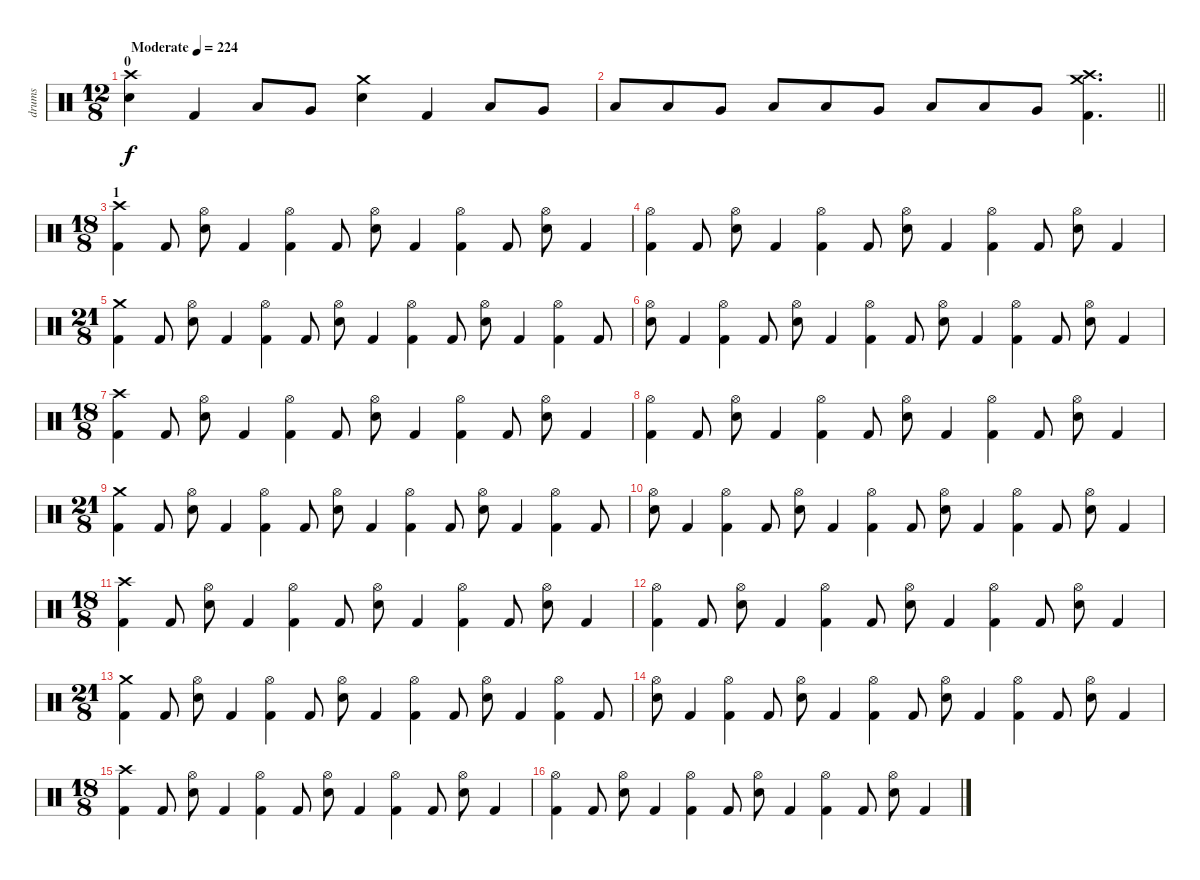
\track ("drums" "drums") {instrument percussion}
\staff {score}
\articulation defaults
\ts (12 8)
\section ("" "0")
\tempo (224 "Moderate")
\clef neutral
\ks c
("Crash high (hit)" "Electric Snare (hit)").4{dy f} "Kick (hit) 2".4 "Low Tom (hit)".8 "Very Low Tom (hit)".8 ("Crash medium (hit)" "Electric Snare (hit)").4 "Kick (hit) 2".4 "Low Tom (hit)".8 "Very Low Tom (hit)".8 |
\barLineRight lightlight "Low Floor Tom (hit)".8 "Low Tom (hit)".8 "Very Low Tom (hit)".8 "Low Floor Tom (hit)".8 "Low Tom (hit)".8 "Very Low Tom (hit)".8 "Low Floor Tom (hit)".8 "Low Tom (hit)".8 "Very Low Tom (hit)".8
("Crash medium (hit)" "Crash high (hit)" "Kick (hit) 2").4{d} |
\ts (18 8)
\section ("" "1")
("Crash high (hit)" "Kick (hit) 2").4 "Kick (hit) 2".8 ("Hi-Hat (open)" "Electric Snare (hit)").8 "Kick (hit) 2".4 ("Hi-Hat (open)" "Kick (hit) 2").4 "Kick (hit) 2".8 ("Hi-Hat (open)" "Electric Snare (hit)").8 "Kick (hit) 2".4 ("Hi-Hat (open)" "Kick (hit) 2").4 "Kick (hit) 2".8 ("Hi-Hat (open)" "Electric Snare (hit)").8 "Kick (hit) 2".4 |
("Hi-Hat (open)" "Kick (hit) 2").4 "Kick (hit) 2".8 ("Electric Snare (hit)" "Hi-Hat (open)").8 "Kick (hit) 2".4 ("Hi-Hat (open)" "Kick (hit) 2").4 "Kick (hit) 2".8 ("Electric Snare (hit)" "Hi-Hat (open)").8 "Kick (hit) 2".4 ("Hi-Hat (open)" "Kick (hit) 2").4 "Kick (hit) 2".8 ("Electric Snare (hit)" "Hi-Hat (open)").8 "Kick (hit) 2".4 |
\ts (21 8)
("Kick (hit) 2" "Crash medium (hit)").4 "Kick (hit) 2".8 ("Electric Snare (hit)" "Hi-Hat (open)").8 "Kick (hit) 2".4 ("Kick (hit) 2" "Hi-Hat (open)").4 "Kick (hit) 2".8 ("Electric Snare (hit)" "Hi-Hat (open)").8 "Kick (hit) 2".4 ("Kick (hit) 2" "Hi-Hat (open)").4 "Kick (hit) 2".8 ("Electric Snare (hit)" "Hi-Hat (open)").8 "Kick (hit) 2".4 ("Kick (hit) 2" "Hi-Hat (open)").4 "Kick (hit) 2".8 |
("Electric Snare (hit)" "Hi-Hat (open)").8 "Kick (hit) 2".4 ("Kick (hit) 2" "Hi-Hat (open)").4 "Kick (hit) 2".8 ("Electric Snare (hit)" "Hi-Hat (open)").8 "Kick (hit) 2".4 ("Kick (hit) 2" "Hi-Hat (open)").4 "Kick (hit) 2".8 ("Electric Snare (hit)" "Hi-Hat (open)").8 "Kick (hit) 2".4 ("Kick (hit) 2" "Hi-Hat (open)").4 "Kick (hit) 2".8 ("Electric Snare (hit)" "Hi-Hat (open)").8 "Kick (hit) 2".4 |
\ts (18 8)
("Crash high (hit)" "Kick (hit) 2").4 "Kick (hit) 2".8 ("Hi-Hat (open)" "Electric Snare (hit)").8 "Kick (hit) 2".4 ("Hi-Hat (open)" "Kick (hit) 2").4 "Kick (hit) 2".8 ("Hi-Hat (open)" "Electric Snare (hit)").8 "Kick (hit) 2".4 ("Hi-Hat (open)" "Kick (hit) 2").4 "Kick (hit) 2".8 ("Hi-Hat (open)" "Electric Snare (hit)").8 "Kick (hit) 2".4 |
("Hi-Hat (open)" "Kick (hit) 2").4 "Kick (hit) 2".8 ("Electric Snare (hit)" "Hi-Hat (open)").8 "Kick (hit) 2".4 ("Hi-Hat (open)" "Kick (hit) 2").4 "Kick (hit) 2".8 ("Electric Snare (hit)" "Hi-Hat (open)").8 "Kick (hit) 2".4 ("Hi-Hat (open)" "Kick (hit) 2").4 "Kick (hit) 2".8 ("Electric Snare (hit)" "Hi-Hat (open)").8 "Kick (hit) 2".4 |
\ts (21 8)
("Kick (hit) 2" "Crash medium (hit)").4 "Kick (hit) 2".8 ("Electric Snare (hit)" "Hi-Hat (open)").8 "Kick (hit) 2".4 ("Kick (hit) 2" "Hi-Hat (open)").4 "Kick (hit) 2".8 ("Electric Snare (hit)" "Hi-Hat (open)").8 "Kick (hit) 2".4 ("Kick (hit) 2" "Hi-Hat (open)").4 "Kick (hit) 2".8 ("Electric Snare (hit)" "Hi-Hat (open)").8 "Kick (hit) 2".4 ("Kick (hit) 2" "Hi-Hat (open)").4 "Kick (hit) 2".8 |
("Electric Snare (hit)" "Hi-Hat (open)").8 "Kick (hit) 2".4 ("Kick (hit) 2" "Hi-Hat (open)").4 "Kick (hit) 2".8 ("Electric Snare (hit)" "Hi-Hat (open)").8 "Kick (hit) 2".4 ("Kick (hit) 2" "Hi-Hat (open)").4 "Kick (hit) 2".8 ("Electric Snare (hit)" "Hi-Hat (open)").8 "Kick (hit) 2".4 ("Kick (hit) 2" "Hi-Hat (open)").4 "Kick (hit) 2".8 ("Electric Snare (hit)" "Hi-Hat (open)").8 "Kick (hit) 2".4 |
\ts (18 8)
("Crash high (hit)" "Kick (hit) 2").4 "Kick (hit) 2".8 ("Hi-Hat (open)" "Electric Snare (hit)").8 "Kick (hit) 2".4 ("Hi-Hat (open)" "Kick (hit) 2").4 "Kick (hit) 2".8 ("Hi-Hat (open)" "Electric Snare (hit)").8 "Kick (hit) 2".4 ("Hi-Hat (open)" "Kick (hit) 2").4 "Kick (hit) 2".8 ("Hi-Hat (open)" "Electric Snare (hit)").8 "Kick (hit) 2".4 |
("Hi-Hat (open)" "Kick (hit) 2").4 "Kick (hit) 2".8 ("Electric Snare (hit)" "Hi-Hat (open)").8 "Kick (hit) 2".4 ("Hi-Hat (open)" "Kick (hit) 2").4 "Kick (hit) 2".8 ("Electric Snare (hit)" "Hi-Hat (open)").8 "Kick (hit) 2".4 ("Hi-Hat (open)" "Kick (hit) 2").4 "Kick (hit) 2".8 ("Electric Snare (hit)" "Hi-Hat (open)").8 "Kick (hit) 2".4 |
\ts (21 8)
("Kick (hit) 2" "Crash medium (hit)").4 "Kick (hit) 2".8 ("Electric Snare (hit)" "Hi-Hat (open)").8 "Kick (hit) 2".4 ("Kick (hit) 2" "Hi-Hat (open)").4 "Kick (hit) 2".8 ("Electric Snare (hit)" "Hi-Hat (open)").8 "Kick (hit) 2".4 ("Kick (hit) 2" "Hi-Hat (open)").4 "Kick (hit) 2".8 ("Electric Snare (hit)" "Hi-Hat (open)").8 "Kick (hit) 2".4 ("Kick (hit) 2" "Hi-Hat (open)").4 "Kick (hit) 2".8 |
("Electric Snare (hit)" "Hi-Hat (open)").8 "Kick (hit) 2".4 ("Kick (hit) 2" "Hi-Hat (open)").4 "Kick (hit) 2".8 ("Electric Snare (hit)" "Hi-Hat (open)").8 "Kick (hit) 2".4 ("Kick (hit) 2" "Hi-Hat (open)").4 "Kick (hit) 2".8 ("Electric Snare (hit)" "Hi-Hat (open)").8 "Kick (hit) 2".4 ("Kick (hit) 2" "Hi-Hat (open)").4 "Kick (hit) 2".8 ("Electric Snare (hit)" "Hi-Hat (open)").8 "Kick (hit) 2".4 |
\ts (18 8)
("Crash high (hit)" "Kick (hit) 2").4 "Kick (hit) 2".8 ("Hi-Hat (open)" "Electric Snare (hit)").8 "Kick (hit) 2".4 ("Hi-Hat (open)" "Kick (hit) 2").4 "Kick (hit) 2".8 ("Hi-Hat (open)" "Electric Snare (hit)").8 "Kick (hit) 2".4 ("Hi-Hat (open)" "Kick (hit) 2").4 "Kick (hit) 2".8 ("Hi-Hat (open)" "Electric Snare (hit)").8 "Kick (hit) 2".4 |
("Hi-Hat (open)" "Kick (hit) 2").4 "Kick (hit) 2".8 ("Electric Snare (hit)" "Hi-Hat (open)").8 "Kick (hit) 2".4 ("Hi-Hat (open)" "Kick (hit) 2").4 "Kick (hit) 2".8 ("Electric Snare (hit)" "Hi-Hat (open)").8 "Kick (hit) 2".4 ("Hi-Hat (open)" "Kick (hit) 2").4 "Kick (hit) 2".8 ("Electric Snare (hit)" "Hi-Hat (open)").8 "Kick (hit) 2".4
